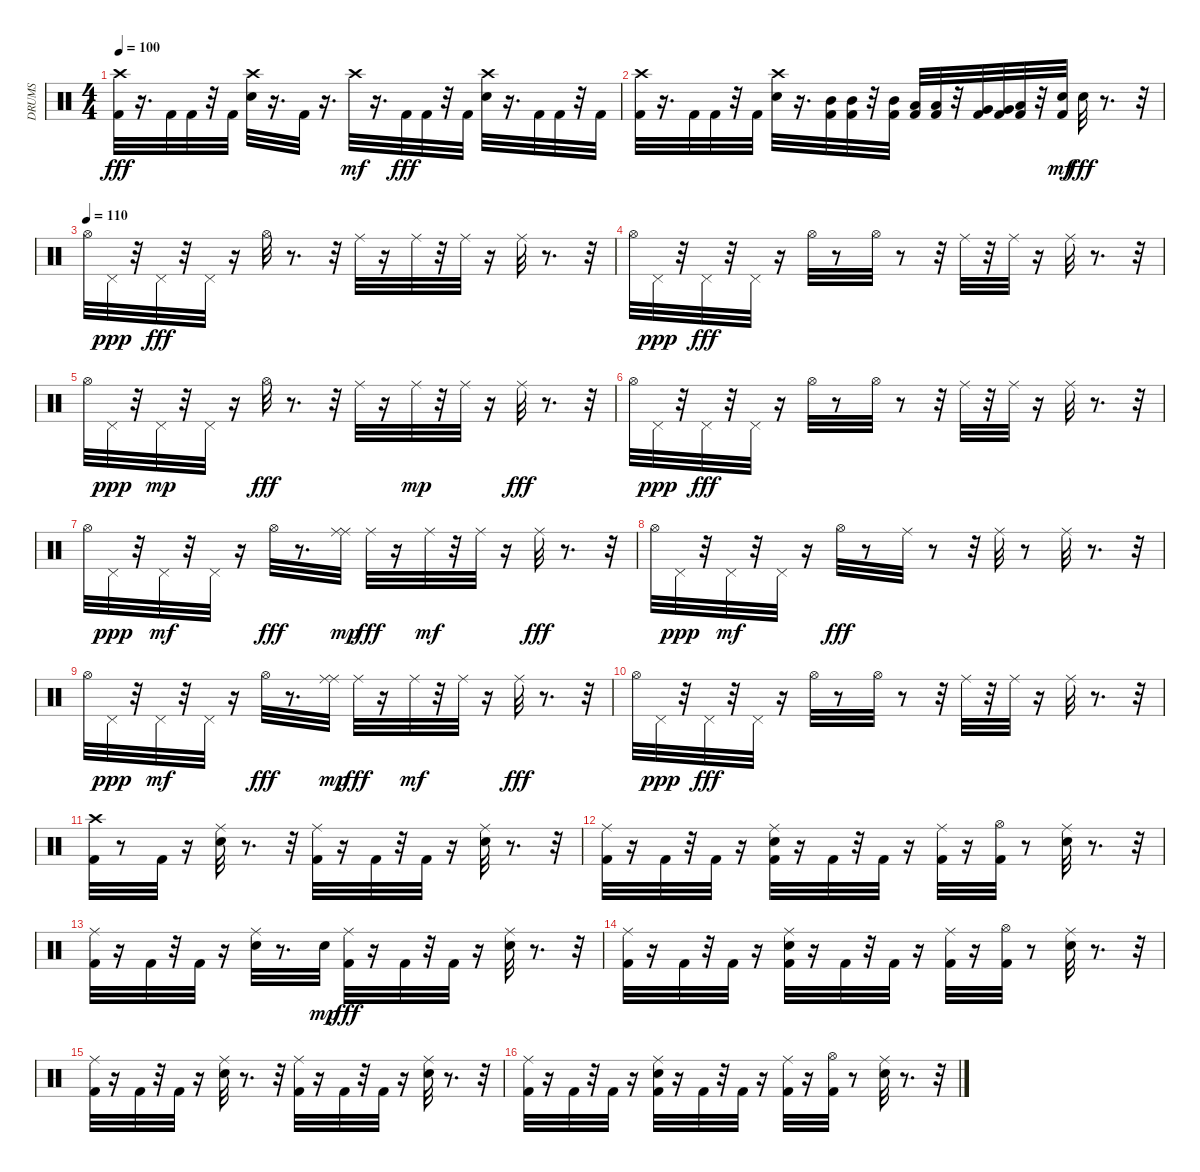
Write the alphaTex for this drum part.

\track ("DRUMS" "DRUMS") {instrument percussion}
\staff {score}
\articulation defaults
\ts (4 4)
\tempo 100
\clef neutral
\ks c
("Crash high (hit)" "Kick (hit) 2").32{dy fff} r.16{d} "Kick (hit) 2".32 "Kick (hit) 2".32 r.32 "Kick (hit) 2".32 ("Crash high (hit)" "Electric Snare (hit)").32 r.16{d} "Kick (hit) 2".32 r.16{d} "Crash high (hit)".32{dy mf} r.16{d} "Kick (hit) 2".32{dy fff} "Kick (hit) 2".32 r.32 "Kick (hit) 2".32 ("Crash high (hit)" "Electric Snare (hit)").32 r.16{d} "Kick (hit) 2".32 "Kick (hit) 2".32 r.32 "Kick (hit) 2".32 |
("Crash high (hit)" "Kick (hit) 2").32 r.16{d} "Kick (hit) 2".32 "Kick (hit) 2".32 r.32 "Kick (hit) 2".32 ("Crash high (hit)" "Electric Snare (hit)").32 r.16{d} ("Mid Tom (hit)" "Kick (hit) 2").32 ("Mid Tom (hit)" "Kick (hit) 2").32 r.32 ("Mid Tom (hit)" "Kick (hit) 2").32 ("Low Tom (hit)" "Kick (hit) 2").32 ("Low Tom (hit)" "Kick (hit) 2").32 r.32 ("Very Low Tom (hit)" "Kick (hit) 2").32 ("Very Low Tom (hit)" "Kick (hit) 2").32 ("Low Floor Tom (hit)" "Kick (hit) 2").32 r.32 ("Kick (hit) 2" "Electric Snare (hit)").32{dy mf} "Electric Snare (hit)".32{dy fff} r.8{d} r.32 |
\tempo (110)
"Hi-Hat (open)".32 "Pedal Hi-Hat (hit)".32{dy ppp} r.32 "Pedal Hi-Hat (hit)".32{dy fff} r.32 "Pedal Hi-Hat (hit)".32 r.16 "Hi-Hat (open)".32 r.8{d} r.32 "Ride (middle)".32 r.16 "Ride (middle)".32 r.32 "Ride (middle)".32 r.16 "Ride (middle)".32 r.8{d} r.32 |
"Hi-Hat (open)".32 "Pedal Hi-Hat (hit)".32{dy ppp} r.32 "Pedal Hi-Hat (hit)".32{dy fff} r.32 "Pedal Hi-Hat (hit)".32 r.16 "Hi-Hat (open)".32 r.8 "Hi-Hat (open)".32 r.8 r.32 "Ride (middle)".32 r.32 "Ride (middle)".32 r.16 "Ride (middle)".32 r.8{d} r.32 |
"Hi-Hat (open)".32 "Pedal Hi-Hat (hit)".32{dy ppp} r.32 "Pedal Hi-Hat (hit)".32{dy mp} r.32 "Pedal Hi-Hat (hit)".32 r.16 "Hi-Hat (open)".32{dy fff} r.8{d} r.32 "Ride (middle)".32 r.16 "Ride (middle)".32{dy mp} r.32 "Ride (middle)".32 r.16 "Ride (middle)".32{dy fff} r.8{d} r.32 |
"Hi-Hat (open)".32 "Pedal Hi-Hat (hit)".32{dy ppp} r.32 "Pedal Hi-Hat (hit)".32{dy fff} r.32 "Pedal Hi-Hat (hit)".32 r.16 "Hi-Hat (open)".32 r.8 "Hi-Hat (open)".32 r.8 r.32 "Ride (middle)".32 r.32 "Ride (middle)".32 r.16 "Ride (middle)".32 r.8{d} r.32 |
"Hi-Hat (open)".32 "Pedal Hi-Hat (hit)".32{dy ppp} r.32 "Pedal Hi-Hat (hit)".32{dy mf} r.32 "Pedal Hi-Hat (hit)".32 r.16 "Hi-Hat (open)".32{dy fff} r.8{d} ("Ride (middle)" "Ride (middle)").32{dy mp} "Ride (middle)".32{dy fff} r.16 "Ride (middle)".32{dy mf} r.32 "Ride (middle)".32 r.16 "Ride (middle)".32{dy fff} r.8{d} r.32 |
"Hi-Hat (open)".32 "Pedal Hi-Hat (hit)".32{dy ppp} r.32 "Pedal Hi-Hat (hit)".32{dy mf} r.32 "Pedal Hi-Hat (hit)".32 r.16 "Hi-Hat (open)".32{dy fff} r.8 "Ride (middle)".32 r.8 r.32 "Ride (middle)".32 r.8 "Ride (middle)".32 r.8{d} r.32 |
"Hi-Hat (open)".32 "Pedal Hi-Hat (hit)".32{dy ppp} r.32 "Pedal Hi-Hat (hit)".32{dy mf} r.32 "Pedal Hi-Hat (hit)".32 r.16 "Hi-Hat (open)".32{dy fff} r.8{d} ("Ride (middle)" "Ride (middle)").32{dy mp} "Ride (middle)".32{dy fff} r.16 "Ride (middle)".32{dy mf} r.32 "Ride (middle)".32 r.16 "Ride (middle)".32{dy fff} r.8{d} r.32 |
"Hi-Hat (open)".32 "Pedal Hi-Hat (hit)".32{dy ppp} r.32 "Pedal Hi-Hat (hit)".32{dy fff} r.32 "Pedal Hi-Hat (hit)".32 r.16 "Hi-Hat (open)".32 r.8 "Hi-Hat (open)".32 r.8 r.32 "Ride (middle)".32 r.32 "Ride (middle)".32 r.16 "Ride (middle)".32 r.8{d} r.32 |
("Crash high (hit)" "Kick (hit) 2").32 r.8 "Kick (hit) 2".32 r.16 ("Electric Snare (hit)" "Ride (middle)").32 r.8{d} r.32 ("Kick (hit) 2" "Ride (middle)").32 r.16 "Kick (hit) 2".32 r.32 "Kick (hit) 2".32 r.16 ("Electric Snare (hit)" "Ride (middle)").32 r.8{d} r.32 |
("Kick (hit) 2" "Ride (middle)").32 r.16 "Kick (hit) 2".32 r.32 "Kick (hit) 2".32 r.16 ("Electric Snare (hit)" "Kick (hit) 2" "Ride (middle)").32 r.16 "Kick (hit) 2".32 r.32 "Kick (hit) 2".32 r.16 ("Kick (hit) 2" "Ride (middle)").32 r.16 ("Hi-Hat (open)" "Kick (hit) 2").32 r.8 ("Electric Snare (hit)" "Ride (middle)").32 r.8{d} r.32 |
("Kick (hit) 2" "Ride (middle)").32 r.16 "Kick (hit) 2".32 r.32 "Kick (hit) 2".32 r.16 ("Electric Snare (hit)" "Ride (middle)").32 r.8{d} "Electric Snare (hit)".32{dy mp} ("Kick (hit) 2" "Ride (middle)").32{dy fff} r.16 "Kick (hit) 2".32 r.32 "Kick (hit) 2".32 r.16 ("Electric Snare (hit)" "Ride (middle)").32 r.8{d} r.32 |
("Kick (hit) 2" "Ride (middle)").32 r.16 "Kick (hit) 2".32 r.32 "Kick (hit) 2".32 r.16 ("Electric Snare (hit)" "Kick (hit) 2" "Ride (middle)").32 r.16 "Kick (hit) 2".32 r.32 "Kick (hit) 2".32 r.16 ("Kick (hit) 2" "Ride (middle)").32 r.16 ("Hi-Hat (open)" "Kick (hit) 2").32 r.8 ("Electric Snare (hit)" "Ride (middle)").32 r.8{d} r.32 |
("Kick (hit) 2" "Ride (middle)").32 r.16 "Kick (hit) 2".32 r.32 "Kick (hit) 2".32 r.16 ("Electric Snare (hit)" "Ride (middle)").32 r.8{d} r.32 ("Kick (hit) 2" "Ride (middle)").32 r.16 "Kick (hit) 2".32 r.32 "Kick (hit) 2".32 r.16 ("Electric Snare (hit)" "Ride (middle)").32 r.8{d} r.32 |
("Kick (hit) 2" "Ride (middle)").32 r.16 "Kick (hit) 2".32 r.32 "Kick (hit) 2".32 r.16 ("Electric Snare (hit)" "Kick (hit) 2" "Ride (middle)").32 r.16 "Kick (hit) 2".32 r.32 "Kick (hit) 2".32 r.16 ("Kick (hit) 2" "Ride (middle)").32 r.16 ("Hi-Hat (open)" "Kick (hit) 2").32 r.8 ("Electric Snare (hit)" "Ride (middle)").32 r.8{d} r.32
